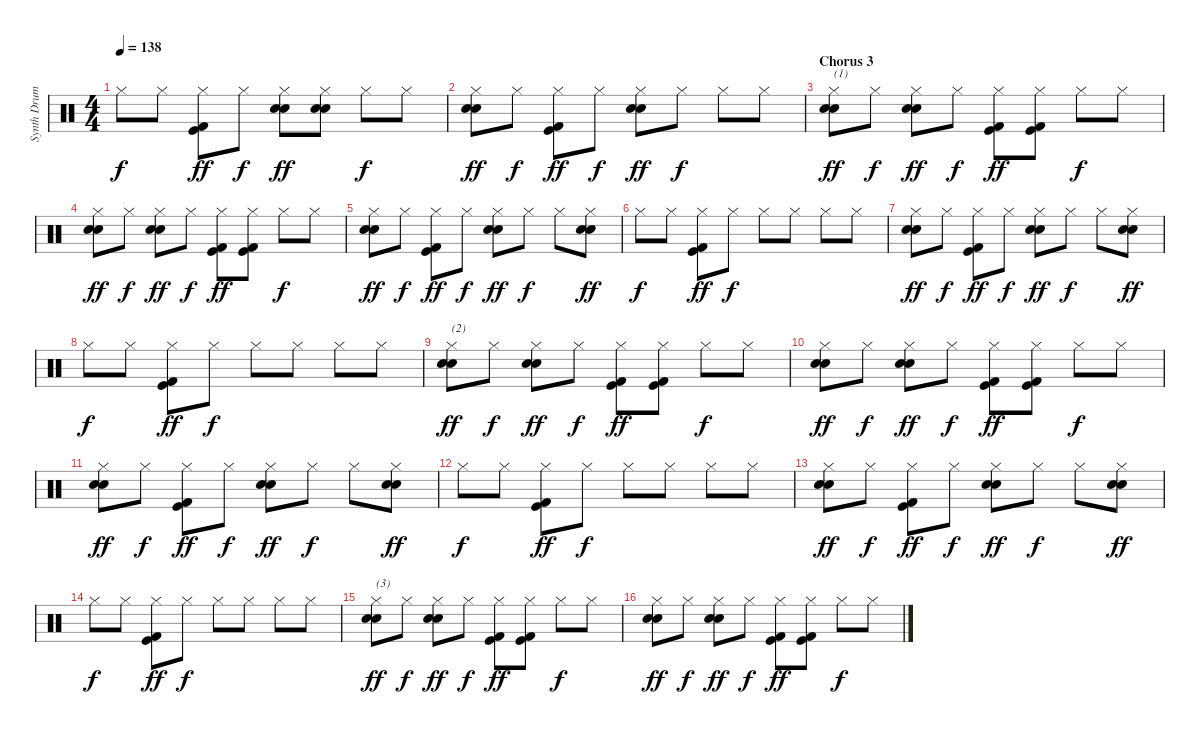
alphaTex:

\track ("Synth Drums" "Synth Drum") {instrument percussion}
\staff {score}
\articulation defaults
\ts (4 4)
\tempo 138
\clef neutral
\ks c "Hi-Hat (closed)".8{dy f} "Hi-Hat (closed)".8
("Hi-Hat (closed)" "Kick (hit)" "Kick (hit) 2").8{dy ff} "Hi-Hat (closed)".8{dy f} ("Hi-Hat (closed)" "Electric Snare (hit)" "Snare (hit) 2").8{dy ff} ("Hi-Hat (closed)" "Electric Snare (hit)" "Snare (hit) 2").8 "Hi-Hat (closed)".8{dy f} "Hi-Hat (closed)".8 |
("Hi-Hat (closed)" "Electric Snare (hit)" "Snare (hit) 2").8{dy ff} "Hi-Hat (closed)".8{dy f} ("Hi-Hat (closed)" "Kick (hit)" "Kick (hit) 2").8{dy ff} "Hi-Hat (closed)".8{dy f} ("Hi-Hat (closed)" "Electric Snare (hit)" "Snare (hit) 2").8{dy ff} "Hi-Hat (closed)".8{dy f} "Hi-Hat (closed)".8 "Hi-Hat (closed)".8 |
\section ("" "Chorus 3")
("Hi-Hat (closed)" "Electric Snare (hit)" "Snare (hit) 2").8{txt "(1)" dy ff} "Hi-Hat (closed)".8{dy f} ("Hi-Hat (closed)" "Electric Snare (hit)" "Snare (hit) 2").8{dy ff} "Hi-Hat (closed)".8{dy f} ("Hi-Hat (closed)" "Kick (hit)" "Kick (hit) 2").8{dy ff} ("Hi-Hat (closed)" "Kick (hit)" "Kick (hit) 2").8 "Hi-Hat (closed)".8{dy f} "Hi-Hat (closed)".8 |
("Hi-Hat (closed)" "Electric Snare (hit)" "Snare (hit) 2").8{dy ff} "Hi-Hat (closed)".8{dy f} ("Hi-Hat (closed)" "Electric Snare (hit)" "Snare (hit) 2").8{dy ff} "Hi-Hat (closed)".8{dy f} ("Hi-Hat (closed)" "Kick (hit)" "Kick (hit) 2").8{dy ff} ("Hi-Hat (closed)" "Kick (hit)" "Kick (hit) 2").8 "Hi-Hat (closed)".8{dy f} "Hi-Hat (closed)".8 |
("Hi-Hat (closed)" "Electric Snare (hit)" "Snare (hit) 2").8{dy ff} "Hi-Hat (closed)".8{dy f} ("Hi-Hat (closed)" "Kick (hit)" "Kick (hit) 2").8{dy ff} "Hi-Hat (closed)".8{dy f} ("Hi-Hat (closed)" "Electric Snare (hit)" "Snare (hit) 2").8{dy ff} "Hi-Hat (closed)".8{dy f} "Hi-Hat (closed)".8 ("Hi-Hat (closed)" "Electric Snare (hit)" "Snare (hit) 2").8{dy ff} |
"Hi-Hat (closed)".8{dy f} "Hi-Hat (closed)".8 ("Hi-Hat (closed)" "Kick (hit)" "Kick (hit) 2").8{dy ff} "Hi-Hat (closed)".8{dy f} "Hi-Hat (closed)".8 "Hi-Hat (closed)".8 "Hi-Hat (closed)".8 "Hi-Hat (closed)".8 |
("Hi-Hat (closed)" "Electric Snare (hit)" "Snare (hit) 2").8{dy ff} "Hi-Hat (closed)".8{dy f} ("Hi-Hat (closed)" "Kick (hit)" "Kick (hit) 2").8{dy ff} "Hi-Hat (closed)".8{dy f} ("Hi-Hat (closed)" "Electric Snare (hit)" "Snare (hit) 2").8{dy ff} "Hi-Hat (closed)".8{dy f} "Hi-Hat (closed)".8 ("Hi-Hat (closed)" "Electric Snare (hit)" "Snare (hit) 2").8{dy ff} |
"Hi-Hat (closed)".8{dy f} "Hi-Hat (closed)".8 ("Hi-Hat (closed)" "Kick (hit)" "Kick (hit) 2").8{dy ff} "Hi-Hat (closed)".8{dy f} "Hi-Hat (closed)".8 "Hi-Hat (closed)".8 "Hi-Hat (closed)".8 "Hi-Hat (closed)".8 |
("Hi-Hat (closed)" "Electric Snare (hit)" "Snare (hit) 2").8{txt "(2)" dy ff} "Hi-Hat (closed)".8{dy f} ("Hi-Hat (closed)" "Electric Snare (hit)" "Snare (hit) 2").8{dy ff} "Hi-Hat (closed)".8{dy f} ("Hi-Hat (closed)" "Kick (hit)" "Kick (hit) 2").8{dy ff} ("Hi-Hat (closed)" "Kick (hit)" "Kick (hit) 2").8 "Hi-Hat (closed)".8{dy f} "Hi-Hat (closed)".8 |
("Hi-Hat (closed)" "Electric Snare (hit)" "Snare (hit) 2").8{dy ff} "Hi-Hat (closed)".8{dy f} ("Hi-Hat (closed)" "Electric Snare (hit)" "Snare (hit) 2").8{dy ff} "Hi-Hat (closed)".8{dy f} ("Hi-Hat (closed)" "Kick (hit)" "Kick (hit) 2").8{dy ff} ("Hi-Hat (closed)" "Kick (hit)" "Kick (hit) 2").8 "Hi-Hat (closed)".8{dy f} "Hi-Hat (closed)".8 |
("Hi-Hat (closed)" "Electric Snare (hit)" "Snare (hit) 2").8{dy ff} "Hi-Hat (closed)".8{dy f} ("Hi-Hat (closed)" "Kick (hit)" "Kick (hit) 2").8{dy ff} "Hi-Hat (closed)".8{dy f} ("Hi-Hat (closed)" "Electric Snare (hit)" "Snare (hit) 2").8{dy ff} "Hi-Hat (closed)".8{dy f} "Hi-Hat (closed)".8 ("Hi-Hat (closed)" "Electric Snare (hit)" "Snare (hit) 2").8{dy ff} |
"Hi-Hat (closed)".8{dy f} "Hi-Hat (closed)".8 ("Hi-Hat (closed)" "Kick (hit)" "Kick (hit) 2").8{dy ff} "Hi-Hat (closed)".8{dy f} "Hi-Hat (closed)".8 "Hi-Hat (closed)".8 "Hi-Hat (closed)".8 "Hi-Hat (closed)".8 |
("Hi-Hat (closed)" "Electric Snare (hit)" "Snare (hit) 2").8{dy ff} "Hi-Hat (closed)".8{dy f} ("Hi-Hat (closed)" "Kick (hit)" "Kick (hit) 2").8{dy ff} "Hi-Hat (closed)".8{dy f} ("Hi-Hat (closed)" "Electric Snare (hit)" "Snare (hit) 2").8{dy ff} "Hi-Hat (closed)".8{dy f} "Hi-Hat (closed)".8 ("Hi-Hat (closed)" "Electric Snare (hit)" "Snare (hit) 2").8{dy ff} |
"Hi-Hat (closed)".8{dy f} "Hi-Hat (closed)".8 ("Hi-Hat (closed)" "Kick (hit)" "Kick (hit) 2").8{dy ff} "Hi-Hat (closed)".8{dy f} "Hi-Hat (closed)".8 "Hi-Hat (closed)".8 "Hi-Hat (closed)".8 "Hi-Hat (closed)".8 |
("Hi-Hat (closed)" "Electric Snare (hit)" "Snare (hit) 2").8{txt "(3)" dy ff} "Hi-Hat (closed)".8{dy f} ("Hi-Hat (closed)" "Electric Snare (hit)" "Snare (hit) 2").8{dy ff} "Hi-Hat (closed)".8{dy f} ("Hi-Hat (closed)" "Kick (hit)" "Kick (hit) 2").8{dy ff} ("Hi-Hat (closed)" "Kick (hit)" "Kick (hit) 2").8 "Hi-Hat (closed)".8{dy f} "Hi-Hat (closed)".8 |
("Hi-Hat (closed)" "Electric Snare (hit)" "Snare (hit) 2").8{dy ff} "Hi-Hat (closed)".8{dy f} ("Hi-Hat (closed)" "Electric Snare (hit)" "Snare (hit) 2").8{dy ff} "Hi-Hat (closed)".8{dy f} ("Hi-Hat (closed)" "Kick (hit)" "Kick (hit) 2").8{dy ff} ("Hi-Hat (closed)" "Kick (hit)" "Kick (hit) 2").8 "Hi-Hat (closed)".8{dy f} "Hi-Hat (closed)".8
